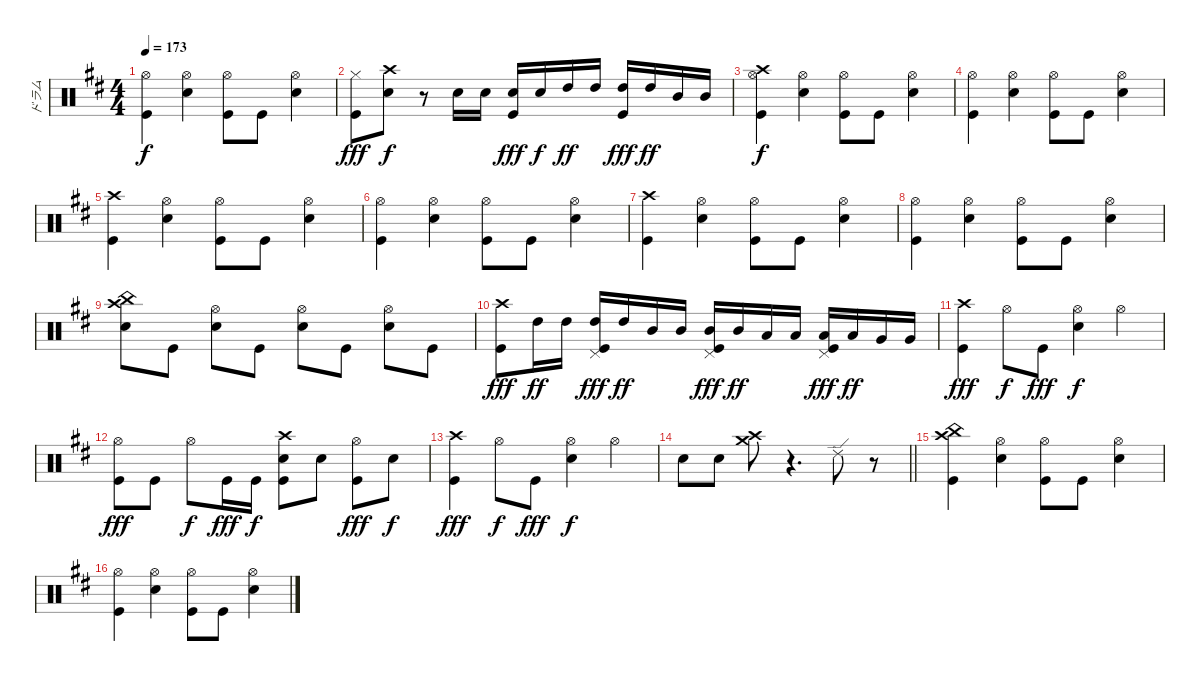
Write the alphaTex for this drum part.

\track ("ドラム" "ドラム") {mute instrument percussion}
\staff {score}
\articulation defaults
\ts (4 4)
\tempo 173
\clef neutral
\ks d
("Hi-Hat (open)" "Kick (hit)").4{dy f} ("Hi-Hat (open)" "Snare (hit) 2").4 ("Hi-Hat (open)" "Kick (hit)").8 "Kick (hit)".8 ("Hi-Hat (open)" "Snare (hit) 2").4 |
("Hi-Hat (closed)" "Kick (hit)").8{dy fff} ("Crash high (hit)" "Snare (hit) 2").8{dy f} r.8 "Snare (hit) 2".16 "Snare (hit) 2".16 ("Snare (hit) 2" "Kick (hit)").16{dy fff} "Snare (hit) 2".16{dy f} "High Tom (hit)".16{dy ff} "High Tom (hit)".16 ("High Tom (hit)" "Kick (hit)").16{dy fff} "High Tom (hit)".16{dy ff} "Mid Tom (hit)".16 "Mid Tom (hit)".16 |
("Crash high (hit)" "Hi-Hat (open)" "Kick (hit)").4{dy f} ("Hi-Hat (open)" "Snare (hit) 2").4 ("Hi-Hat (open)" "Kick (hit)").8 "Kick (hit)".8 ("Hi-Hat (open)" "Snare (hit) 2").4 |
("Hi-Hat (open)" "Kick (hit)").4 ("Hi-Hat (open)" "Snare (hit) 2").4 ("Hi-Hat (open)" "Kick (hit)").8 "Kick (hit)".8 ("Hi-Hat (open)" "Snare (hit) 2").4 |
("Crash high (hit)" "Kick (hit)").4 ("Hi-Hat (open)" "Snare (hit) 2").4 ("Hi-Hat (open)" "Kick (hit)").8 "Kick (hit)".8 ("Hi-Hat (open)" "Snare (hit) 2").4 |
("Hi-Hat (open)" "Kick (hit)").4 ("Hi-Hat (open)" "Snare (hit) 2").4 ("Hi-Hat (open)" "Kick (hit)").8 "Kick (hit)".8 ("Hi-Hat (open)" "Snare (hit) 2").4 |
("Crash high (hit)" "Kick (hit)").4 ("Hi-Hat (open)" "Snare (hit) 2").4 ("Hi-Hat (open)" "Kick (hit)").8 "Kick (hit)".8 ("Hi-Hat (open)" "Snare (hit) 2").4 |
("Hi-Hat (open)" "Kick (hit)").4 ("Hi-Hat (open)" "Snare (hit) 2").4 ("Hi-Hat (open)" "Kick (hit)").8 "Kick (hit)".8 ("Hi-Hat (open)" "Snare (hit) 2").4 |
("Crash high (hit)" "China (hit)" "Snare (hit) 2").8 "Kick (hit)".8 ("Hi-Hat (open)" "Snare (hit) 2").8 "Kick (hit)".8 ("Hi-Hat (open)" "Snare (hit) 2").8 "Kick (hit)".8 ("Hi-Hat (open)" "Snare (hit) 2").8 "Kick (hit)".8 |
("Crash high (hit)" "Kick (hit)").8{dy fff} "High Tom (hit)".16{dy ff} "High Tom (hit)".16 ("Pedal Hi-Hat (hit)" "High Tom (hit)" "Kick (hit)").16{dy fff} "High Tom (hit)".16{dy ff} "Mid Tom (hit)".16 "Mid Tom (hit)".16 ("Pedal Hi-Hat (hit)" "Mid Tom (hit)" "Kick (hit)").16{dy fff} "Mid Tom (hit)".16{dy ff} "Low Tom (hit)".16 "Low Tom (hit)".16 ("Pedal Hi-Hat (hit)" "Low Tom (hit)" "Kick (hit)").16{dy fff} "Low Tom (hit)".16{dy ff} "Very Low Tom (hit)".16 "Very Low Tom (hit)".16 |
("Crash high (hit)" "Kick (hit)").4{dy fff} "Hi-Hat (open)".8{dy f} "Kick (hit)".8{dy fff} ("Hi-Hat (open)" "Snare (hit) 2").4{dy f} "Hi-Hat (open)".4 |
("Hi-Hat (open)" "Kick (hit)").8{dy fff} "Kick (hit)".8 "Hi-Hat (open)".8{dy f} "Kick (hit)".16{dy fff} "Kick (hit)".16{dy f} ("Crash high (hit)" "Snare (hit) 2" "Kick (hit)").8 "Snare (hit) 2".8 ("Hi-Hat (open)" "Kick (hit)").8{dy fff} "Snare (hit) 2".8{dy f} |
("Crash high (hit)" "Kick (hit)").4{dy fff} "Hi-Hat (open)".8{dy f} "Kick (hit)".8{dy fff} ("Hi-Hat (open)" "Snare (hit) 2").4{dy f} "Hi-Hat (open)".4 |
\barLineRight lightlight "Snare (hit) 2".8 "Snare (hit) 2".8
("Crash high (hit)" "Crash medium (hit)").8 r.4{d} "Ride (edge) 2".8 r.8 |
("China (hit)" "Crash high (hit)" "Kick (hit)").4{volume 13} ("Hi-Hat (open)" "Snare (hit) 2").4 ("Hi-Hat (open)" "Kick (hit)").8 "Kick (hit)".8 ("Hi-Hat (open)" "Snare (hit) 2").4 |
("Hi-Hat (open)" "Kick (hit)").4 ("Hi-Hat (open)" "Snare (hit) 2").4 ("Hi-Hat (open)" "Kick (hit)").8 "Kick (hit)".8 ("Hi-Hat (open)" "Snare (hit) 2").4
